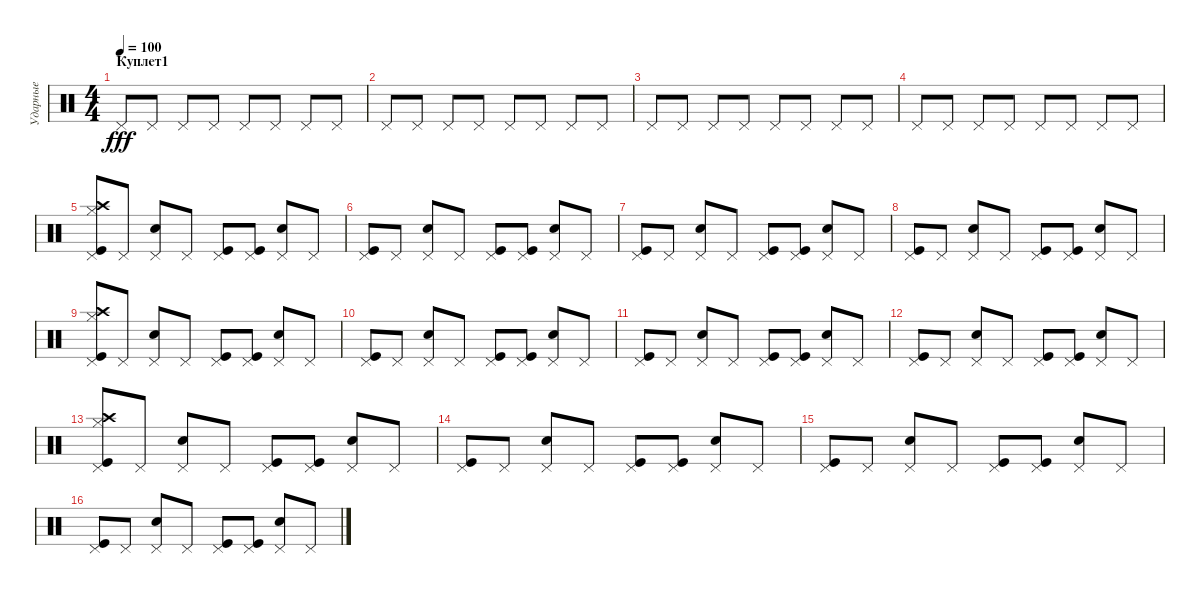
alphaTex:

\track ("Ударные" "Ударные") {instrument percussion}
\staff {score}
\articulation defaults
\ts (4 4)
\section ("" "Куплет1")
\tempo 100
\clef neutral
\ks c "Pedal Hi-Hat (hit)".8{dy fff} "Pedal Hi-Hat (hit)".8 "Pedal Hi-Hat (hit)".8 "Pedal Hi-Hat (hit)".8 "Pedal Hi-Hat (hit)".8 "Pedal Hi-Hat (hit)".8 "Pedal Hi-Hat (hit)".8 "Pedal Hi-Hat (hit)".8
|
"Pedal Hi-Hat (hit)".8 "Pedal Hi-Hat (hit)".8 "Pedal Hi-Hat (hit)".8 "Pedal Hi-Hat (hit)".8 "Pedal Hi-Hat (hit)".8 "Pedal Hi-Hat (hit)".8 "Pedal Hi-Hat (hit)".8 "Pedal Hi-Hat (hit)".8 |
"Pedal Hi-Hat (hit)".8 "Pedal Hi-Hat (hit)".8 "Pedal Hi-Hat (hit)".8 "Pedal Hi-Hat (hit)".8 "Pedal Hi-Hat (hit)".8 "Pedal Hi-Hat (hit)".8 "Pedal Hi-Hat (hit)".8 "Pedal Hi-Hat (hit)".8 |
"Pedal Hi-Hat (hit)".8 "Pedal Hi-Hat (hit)".8 "Pedal Hi-Hat (hit)".8 "Pedal Hi-Hat (hit)".8 "Pedal Hi-Hat (hit)".8 "Pedal Hi-Hat (hit)".8 "Pedal Hi-Hat (hit)".8 "Pedal Hi-Hat (hit)".8 |
("Pedal Hi-Hat (hit)" "Crash high (hit)" "Hi-Hat (closed)" "Kick (hit)").8 "Pedal Hi-Hat (hit)".8 ("Pedal Hi-Hat (hit)" "Snare (hit) 2").8 "Pedal Hi-Hat (hit)".8 ("Pedal Hi-Hat (hit)" "Kick (hit)").8 ("Pedal Hi-Hat (hit)" "Kick (hit)").8 ("Pedal Hi-Hat (hit)" "Snare (hit) 2").8 "Pedal Hi-Hat (hit)".8 |
("Pedal Hi-Hat (hit)" "Kick (hit)").8 "Pedal Hi-Hat (hit)".8 ("Pedal Hi-Hat (hit)" "Snare (hit) 2").8 "Pedal Hi-Hat (hit)".8 ("Pedal Hi-Hat (hit)" "Kick (hit)").8 ("Pedal Hi-Hat (hit)" "Kick (hit)").8 ("Pedal Hi-Hat (hit)" "Snare (hit) 2").8 "Pedal Hi-Hat (hit)".8 |
("Pedal Hi-Hat (hit)" "Kick (hit)").8 "Pedal Hi-Hat (hit)".8 ("Pedal Hi-Hat (hit)" "Snare (hit) 2").8 "Pedal Hi-Hat (hit)".8 ("Pedal Hi-Hat (hit)" "Kick (hit)").8 ("Pedal Hi-Hat (hit)" "Kick (hit)").8 ("Pedal Hi-Hat (hit)" "Snare (hit) 2").8 "Pedal Hi-Hat (hit)".8 |
("Pedal Hi-Hat (hit)" "Kick (hit)").8 "Pedal Hi-Hat (hit)".8 ("Pedal Hi-Hat (hit)" "Snare (hit) 2").8 "Pedal Hi-Hat (hit)".8 ("Pedal Hi-Hat (hit)" "Kick (hit)").8 ("Pedal Hi-Hat (hit)" "Kick (hit)").8 ("Pedal Hi-Hat (hit)" "Snare (hit) 2").8 "Pedal Hi-Hat (hit)".8 |
("Pedal Hi-Hat (hit)" "Crash high (hit)" "Hi-Hat (closed)" "Kick (hit)").8 "Pedal Hi-Hat (hit)".8 ("Pedal Hi-Hat (hit)" "Snare (hit) 2").8 "Pedal Hi-Hat (hit)".8 ("Pedal Hi-Hat (hit)" "Kick (hit)").8 ("Pedal Hi-Hat (hit)" "Kick (hit)").8 ("Pedal Hi-Hat (hit)" "Snare (hit) 2").8 "Pedal Hi-Hat (hit)".8 |
("Pedal Hi-Hat (hit)" "Kick (hit)").8 "Pedal Hi-Hat (hit)".8 ("Pedal Hi-Hat (hit)" "Snare (hit) 2").8 "Pedal Hi-Hat (hit)".8 ("Pedal Hi-Hat (hit)" "Kick (hit)").8 ("Pedal Hi-Hat (hit)" "Kick (hit)").8 ("Pedal Hi-Hat (hit)" "Snare (hit) 2").8 "Pedal Hi-Hat (hit)".8 |
("Pedal Hi-Hat (hit)" "Kick (hit)").8 "Pedal Hi-Hat (hit)".8 ("Pedal Hi-Hat (hit)" "Snare (hit) 2").8 "Pedal Hi-Hat (hit)".8 ("Pedal Hi-Hat (hit)" "Kick (hit)").8 ("Pedal Hi-Hat (hit)" "Kick (hit)").8 ("Pedal Hi-Hat (hit)" "Snare (hit) 2").8 "Pedal Hi-Hat (hit)".8 |
("Pedal Hi-Hat (hit)" "Kick (hit)").8 "Pedal Hi-Hat (hit)".8 ("Pedal Hi-Hat (hit)" "Snare (hit) 2").8 "Pedal Hi-Hat (hit)".8 ("Pedal Hi-Hat (hit)" "Kick (hit)").8 ("Pedal Hi-Hat (hit)" "Kick (hit)").8 ("Pedal Hi-Hat (hit)" "Snare (hit) 2").8 "Pedal Hi-Hat (hit)".8 |
("Pedal Hi-Hat (hit)" "Crash high (hit)" "Hi-Hat (closed)" "Kick (hit)").8 "Pedal Hi-Hat (hit)".8 ("Pedal Hi-Hat (hit)" "Snare (hit) 2").8 "Pedal Hi-Hat (hit)".8 ("Pedal Hi-Hat (hit)" "Kick (hit)").8 ("Pedal Hi-Hat (hit)" "Kick (hit)").8 ("Pedal Hi-Hat (hit)" "Snare (hit) 2").8 "Pedal Hi-Hat (hit)".8 |
("Pedal Hi-Hat (hit)" "Kick (hit)").8 "Pedal Hi-Hat (hit)".8 ("Pedal Hi-Hat (hit)" "Snare (hit) 2").8 "Pedal Hi-Hat (hit)".8 ("Pedal Hi-Hat (hit)" "Kick (hit)").8 ("Pedal Hi-Hat (hit)" "Kick (hit)").8 ("Pedal Hi-Hat (hit)" "Snare (hit) 2").8 "Pedal Hi-Hat (hit)".8 |
("Pedal Hi-Hat (hit)" "Kick (hit)").8 "Pedal Hi-Hat (hit)".8 ("Pedal Hi-Hat (hit)" "Snare (hit) 2").8 "Pedal Hi-Hat (hit)".8 ("Pedal Hi-Hat (hit)" "Kick (hit)").8 ("Pedal Hi-Hat (hit)" "Kick (hit)").8 ("Pedal Hi-Hat (hit)" "Snare (hit) 2").8 "Pedal Hi-Hat (hit)".8 |
("Pedal Hi-Hat (hit)" "Kick (hit)").8 "Pedal Hi-Hat (hit)".8 ("Pedal Hi-Hat (hit)" "Snare (hit) 2").8 "Pedal Hi-Hat (hit)".8 ("Pedal Hi-Hat (hit)" "Kick (hit)").8 ("Pedal Hi-Hat (hit)" "Kick (hit)").8 ("Pedal Hi-Hat (hit)" "Snare (hit) 2").8 "Pedal Hi-Hat (hit)".8
